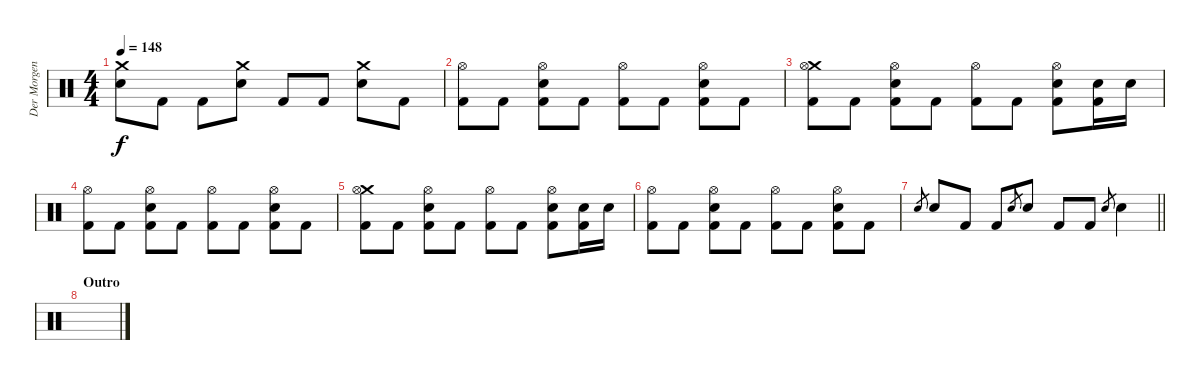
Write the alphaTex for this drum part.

\track ("Der Morgenstern" "Der Morgen") {instrument percussion}
\staff {score}
\articulation defaults
\ts (4 4)
\tempo 148
\clef neutral
\ks c
("Crash medium (hit)" "Electric Snare (hit)").8{dy f} "Kick (hit) 2".8 "Kick (hit) 2".8 ("Crash medium (hit)" "Electric Snare (hit)").8 "Kick (hit) 2".8 "Kick (hit) 2".8 ("Crash medium (hit)" "Electric Snare (hit)").8 "Kick (hit) 2".8 |
("Hi-Hat (open)" "Kick (hit) 2").8 "Kick (hit) 2".8 ("Hi-Hat (open)" "Electric Snare (hit)" "Kick (hit) 2").8 "Kick (hit) 2".8 ("Hi-Hat (open)" "Kick (hit) 2").8 "Kick (hit) 2".8 ("Hi-Hat (open)" "Electric Snare (hit)" "Kick (hit) 2").8 "Kick (hit) 2".8 |
("Crash medium (hit)" "Hi-Hat (open)" "Kick (hit) 2").8 "Kick (hit) 2".8 ("Hi-Hat (open)" "Electric Snare (hit)" "Kick (hit) 2").8 "Kick (hit) 2".8 ("Hi-Hat (open)" "Kick (hit) 2").8 "Kick (hit) 2".8 ("Hi-Hat (open)" "Electric Snare (hit)" "Kick (hit) 2").8 ("Electric Snare (hit)" "Kick (hit) 2").16 "Electric Snare (hit)".16 |
("Hi-Hat (open)" "Kick (hit) 2").8 "Kick (hit) 2".8 ("Hi-Hat (open)" "Electric Snare (hit)" "Kick (hit) 2").8 "Kick (hit) 2".8 ("Hi-Hat (open)" "Kick (hit) 2").8 "Kick (hit) 2".8 ("Hi-Hat (open)" "Electric Snare (hit)" "Kick (hit) 2").8 "Kick (hit) 2".8 |
("Crash medium (hit)" "Hi-Hat (open)" "Kick (hit) 2").8 "Kick (hit) 2".8 ("Hi-Hat (open)" "Electric Snare (hit)" "Kick (hit) 2").8 "Kick (hit) 2".8 ("Hi-Hat (open)" "Kick (hit) 2").8 "Kick (hit) 2".8 ("Hi-Hat (open)" "Electric Snare (hit)" "Kick (hit) 2").8 ("Electric Snare (hit)" "Kick (hit) 2").16 "Electric Snare (hit)".16 |
("Hi-Hat (open)" "Kick (hit) 2").8 "Kick (hit) 2".8 ("Hi-Hat (open)" "Electric Snare (hit)" "Kick (hit) 2").8 "Kick (hit) 2".8 ("Hi-Hat (open)" "Kick (hit) 2").8 "Kick (hit) 2".8 ("Hi-Hat (open)" "Electric Snare (hit)" "Kick (hit) 2").8 "Kick (hit) 2".8 |
\barLineRight lightlight "Electric Snare (hit)".8{gr} "Electric Snare (hit)".8 "Kick (hit) 2".8 "Kick (hit) 2".8 "Electric Snare (hit)".8{gr} "Electric Snare (hit)".8 "Kick (hit) 2".8 "Kick (hit) 2".8 "Electric Snare (hit)".8{gr} "Electric Snare (hit)".4
|
\section ("" "Outro")
